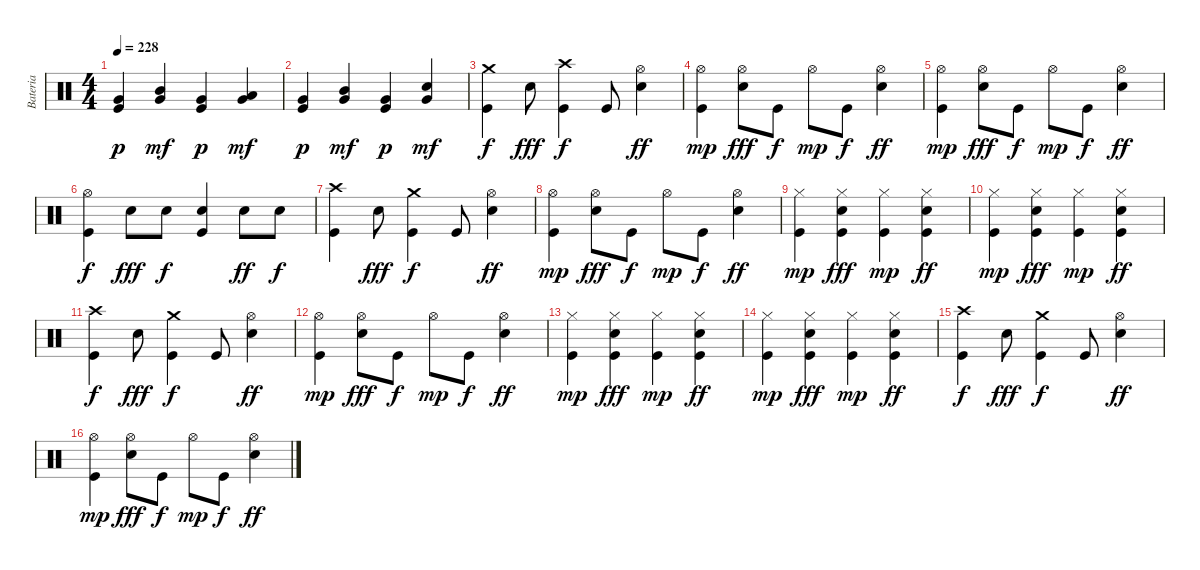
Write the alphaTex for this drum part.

\track ("Bateria" "Bateria") {instrument percussion}
\staff {score}
\articulation defaults
\ts (4 4)
\tempo 228
\clef neutral
\ks c
("Kick (hit)" "Very Low Tom (hit)").4{dy p} ("Mid Tom (hit)" "Very Low Tom (hit)").4{dy mf} ("Kick (hit)" "Very Low Tom (hit)").4{dy p} ("Low Tom (hit)" "Very Low Tom (hit)").4{dy mf} |
("Kick (hit)" "Very Low Tom (hit)").4{dy p} ("Mid Tom (hit)" "Very Low Tom (hit)").4{dy mf} ("Kick (hit)" "Very Low Tom (hit)").4{dy p} ("Electric Snare (hit)" "Very Low Tom (hit)").4{dy mf} |
("Crash medium (hit)" "Kick (hit)").4{dy f} "Electric Snare (hit)".8{dy fff} ("Crash high (hit)" "Kick (hit)").4{dy f} "Kick (hit)".8 ("Hi-Hat (open)" "Electric Snare (hit)").4{dy ff} |
("Hi-Hat (open)" "Kick (hit)").4{dy mp} ("Hi-Hat (open)" "Electric Snare (hit)").8{dy fff} "Kick (hit)".8{dy f} "Hi-Hat (open)".8{dy mp} "Kick (hit)".8{dy f} ("Hi-Hat (open)" "Electric Snare (hit)").4{dy ff} |
("Hi-Hat (open)" "Kick (hit)").4{dy mp} ("Hi-Hat (open)" "Electric Snare (hit)").8{dy fff} "Kick (hit)".8{dy f} "Hi-Hat (open)".8{dy mp} "Kick (hit)".8{dy f} ("Hi-Hat (open)" "Electric Snare (hit)").4{dy ff} |
("Hi-Hat (open)" "Kick (hit)").4{dy f} "Electric Snare (hit)".8{dy fff} "Electric Snare (hit)".8{dy f} ("Kick (hit)" "Electric Snare (hit)").4 "Electric Snare (hit)".8{dy ff} "Electric Snare (hit)".8{dy f} |
("Crash high (hit)" "Kick (hit)").4 "Electric Snare (hit)".8{dy fff} ("Crash medium (hit)" "Kick (hit)").4{dy f} "Kick (hit)".8 ("Hi-Hat (open)" "Electric Snare (hit)").4{dy ff} |
("Hi-Hat (open)" "Kick (hit)").4{dy mp} ("Hi-Hat (open)" "Electric Snare (hit)").8{dy fff} "Kick (hit)".8{dy f} "Hi-Hat (open)".8{dy mp} "Kick (hit)".8{dy f} ("Hi-Hat (open)" "Electric Snare (hit)").4{dy ff} |
("Hi-Hat (closed)" "Kick (hit)").4{dy mp} ("Hi-Hat (closed)" "Kick (hit)" "Electric Snare (hit)").4{dy fff} ("Hi-Hat (closed)" "Kick (hit)").4{dy mp} ("Hi-Hat (closed)" "Kick (hit)" "Electric Snare (hit)").4{dy ff} |
("Hi-Hat (closed)" "Kick (hit)").4{dy mp} ("Hi-Hat (closed)" "Kick (hit)" "Electric Snare (hit)").4{dy fff} ("Hi-Hat (closed)" "Kick (hit)").4{dy mp} ("Hi-Hat (closed)" "Kick (hit)" "Electric Snare (hit)").4{dy ff} |
("Crash high (hit)" "Kick (hit)").4{dy f} "Electric Snare (hit)".8{dy fff} ("Crash medium (hit)" "Kick (hit)").4{dy f} "Kick (hit)".8 ("Hi-Hat (open)" "Electric Snare (hit)").4{dy ff} |
("Hi-Hat (open)" "Kick (hit)").4{dy mp} ("Hi-Hat (open)" "Electric Snare (hit)").8{dy fff} "Kick (hit)".8{dy f} "Hi-Hat (open)".8{dy mp} "Kick (hit)".8{dy f} ("Hi-Hat (open)" "Electric Snare (hit)").4{dy ff} |
("Hi-Hat (closed)" "Kick (hit)").4{dy mp} ("Hi-Hat (closed)" "Kick (hit)" "Electric Snare (hit)").4{dy fff} ("Hi-Hat (closed)" "Kick (hit)").4{dy mp} ("Hi-Hat (closed)" "Kick (hit)" "Electric Snare (hit)").4{dy ff} |
("Hi-Hat (closed)" "Kick (hit)").4{dy mp} ("Hi-Hat (closed)" "Kick (hit)" "Electric Snare (hit)").4{dy fff} ("Hi-Hat (closed)" "Kick (hit)").4{dy mp} ("Hi-Hat (closed)" "Kick (hit)" "Electric Snare (hit)").4{dy ff} |
("Crash high (hit)" "Kick (hit)").4{dy f} "Electric Snare (hit)".8{dy fff} ("Crash medium (hit)" "Kick (hit)").4{dy f} "Kick (hit)".8 ("Hi-Hat (open)" "Electric Snare (hit)").4{dy ff} |
("Hi-Hat (open)" "Kick (hit)").4{dy mp} ("Hi-Hat (open)" "Electric Snare (hit)").8{dy fff} "Kick (hit)".8{dy f} "Hi-Hat (open)".8{dy mp} "Kick (hit)".8{dy f} ("Hi-Hat (open)" "Electric Snare (hit)").4{dy ff}
